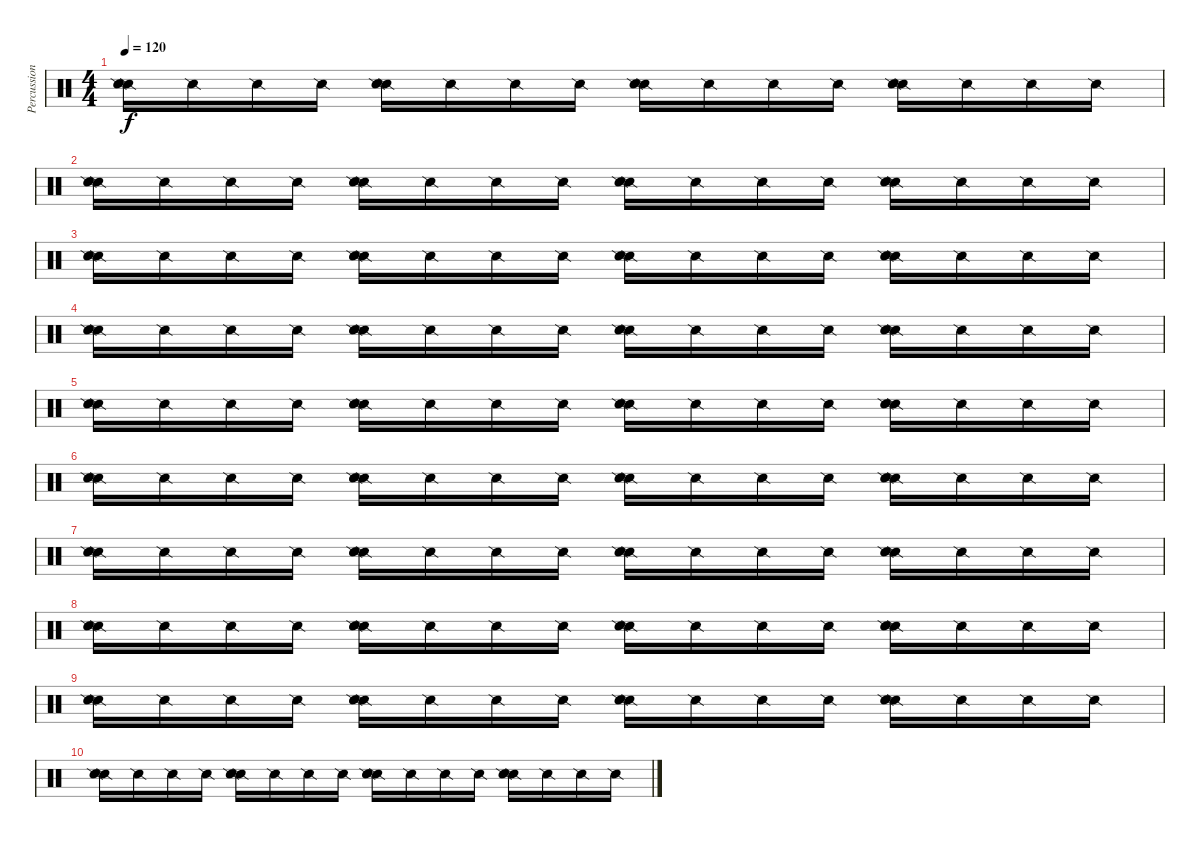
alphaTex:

\track ("Percussioni" "Percussion") {instrument percussion}
\staff {score}
\articulation defaults
\ts (4 4)
\tempo 120
\clef neutral
\ks c
("Snare (side stick) 2" "Snare (side stick) 2" "Metronome (bell)").16{dy f} "Snare (side stick) 2".16 "Snare (side stick) 2".16 "Snare (side stick) 2".16 ("Snare (side stick) 2" "Snare (side stick) 2" "Metronome (bell)").16 "Snare (side stick) 2".16 "Snare (side stick) 2".16 "Snare (side stick) 2".16 ("Snare (side stick) 2" "Snare (side stick) 2" "Metronome (bell)").16 "Snare (side stick) 2".16 "Snare (side stick) 2".16 "Snare (side stick) 2".16 ("Snare (side stick) 2" "Snare (side stick) 2" "Metronome (bell)").16 "Snare (side stick) 2".16 "Snare (side stick) 2".16 "Snare (side stick) 2".16 |
("Snare (side stick) 2" "Snare (side stick) 2" "Metronome (bell)").16 "Snare (side stick) 2".16 "Snare (side stick) 2".16 "Snare (side stick) 2".16 ("Snare (side stick) 2" "Snare (side stick) 2" "Metronome (bell)").16 "Snare (side stick) 2".16 "Snare (side stick) 2".16 "Snare (side stick) 2".16 ("Snare (side stick) 2" "Snare (side stick) 2" "Metronome (bell)").16 "Snare (side stick) 2".16 "Snare (side stick) 2".16 "Snare (side stick) 2".16 ("Snare (side stick) 2" "Snare (side stick) 2" "Metronome (bell)").16 "Snare (side stick) 2".16 "Snare (side stick) 2".16 "Snare (side stick) 2".16 |
("Snare (side stick) 2" "Snare (side stick) 2" "Metronome (bell)").16 "Snare (side stick) 2".16 "Snare (side stick) 2".16 "Snare (side stick) 2".16 ("Snare (side stick) 2" "Snare (side stick) 2" "Metronome (bell)").16 "Snare (side stick) 2".16 "Snare (side stick) 2".16 "Snare (side stick) 2".16 ("Snare (side stick) 2" "Snare (side stick) 2" "Metronome (bell)").16 "Snare (side stick) 2".16 "Snare (side stick) 2".16 "Snare (side stick) 2".16 ("Snare (side stick) 2" "Snare (side stick) 2" "Metronome (bell)").16 "Snare (side stick) 2".16 "Snare (side stick) 2".16 "Snare (side stick) 2".16 |
("Snare (side stick) 2" "Snare (side stick) 2" "Metronome (bell)").16 "Snare (side stick) 2".16 "Snare (side stick) 2".16 "Snare (side stick) 2".16 ("Snare (side stick) 2" "Snare (side stick) 2" "Metronome (bell)").16 "Snare (side stick) 2".16 "Snare (side stick) 2".16 "Snare (side stick) 2".16 ("Snare (side stick) 2" "Snare (side stick) 2" "Metronome (bell)").16 "Snare (side stick) 2".16 "Snare (side stick) 2".16 "Snare (side stick) 2".16 ("Snare (side stick) 2" "Snare (side stick) 2" "Metronome (bell)").16 "Snare (side stick) 2".16 "Snare (side stick) 2".16 "Snare (side stick) 2".16 |
("Snare (side stick) 2" "Snare (side stick) 2" "Metronome (bell)").16 "Snare (side stick) 2".16 "Snare (side stick) 2".16 "Snare (side stick) 2".16 ("Snare (side stick) 2" "Snare (side stick) 2" "Metronome (bell)").16 "Snare (side stick) 2".16 "Snare (side stick) 2".16 "Snare (side stick) 2".16 ("Snare (side stick) 2" "Snare (side stick) 2" "Metronome (bell)").16 "Snare (side stick) 2".16 "Snare (side stick) 2".16 "Snare (side stick) 2".16 ("Snare (side stick) 2" "Snare (side stick) 2" "Metronome (bell)").16 "Snare (side stick) 2".16 "Snare (side stick) 2".16 "Snare (side stick) 2".16 |
("Snare (side stick) 2" "Snare (side stick) 2" "Metronome (bell)").16 "Snare (side stick) 2".16 "Snare (side stick) 2".16 "Snare (side stick) 2".16 ("Snare (side stick) 2" "Snare (side stick) 2" "Metronome (bell)").16 "Snare (side stick) 2".16 "Snare (side stick) 2".16 "Snare (side stick) 2".16 ("Snare (side stick) 2" "Snare (side stick) 2" "Metronome (bell)").16 "Snare (side stick) 2".16 "Snare (side stick) 2".16 "Snare (side stick) 2".16 ("Snare (side stick) 2" "Snare (side stick) 2" "Metronome (bell)").16 "Snare (side stick) 2".16 "Snare (side stick) 2".16 "Snare (side stick) 2".16 |
("Snare (side stick) 2" "Snare (side stick) 2" "Metronome (bell)").16 "Snare (side stick) 2".16 "Snare (side stick) 2".16 "Snare (side stick) 2".16 ("Snare (side stick) 2" "Snare (side stick) 2" "Metronome (bell)").16 "Snare (side stick) 2".16 "Snare (side stick) 2".16 "Snare (side stick) 2".16 ("Snare (side stick) 2" "Snare (side stick) 2" "Metronome (bell)").16 "Snare (side stick) 2".16 "Snare (side stick) 2".16 "Snare (side stick) 2".16 ("Snare (side stick) 2" "Snare (side stick) 2" "Metronome (bell)").16 "Snare (side stick) 2".16 "Snare (side stick) 2".16 "Snare (side stick) 2".16 |
("Snare (side stick) 2" "Snare (side stick) 2" "Metronome (bell)").16 "Snare (side stick) 2".16 "Snare (side stick) 2".16 "Snare (side stick) 2".16 ("Snare (side stick) 2" "Snare (side stick) 2" "Metronome (bell)").16 "Snare (side stick) 2".16 "Snare (side stick) 2".16 "Snare (side stick) 2".16 ("Snare (side stick) 2" "Snare (side stick) 2" "Metronome (bell)").16 "Snare (side stick) 2".16 "Snare (side stick) 2".16 "Snare (side stick) 2".16 ("Snare (side stick) 2" "Snare (side stick) 2" "Metronome (bell)").16 "Snare (side stick) 2".16 "Snare (side stick) 2".16 "Snare (side stick) 2".16 |
("Snare (side stick) 2" "Snare (side stick) 2" "Metronome (bell)").16 "Snare (side stick) 2".16 "Snare (side stick) 2".16 "Snare (side stick) 2".16 ("Snare (side stick) 2" "Snare (side stick) 2" "Metronome (bell)").16 "Snare (side stick) 2".16 "Snare (side stick) 2".16 "Snare (side stick) 2".16 ("Snare (side stick) 2" "Snare (side stick) 2" "Metronome (bell)").16 "Snare (side stick) 2".16 "Snare (side stick) 2".16 "Snare (side stick) 2".16 ("Snare (side stick) 2" "Snare (side stick) 2" "Metronome (bell)").16 "Snare (side stick) 2".16 "Snare (side stick) 2".16 "Snare (side stick) 2".16 |
("Snare (side stick) 2" "Snare (side stick) 2" "Metronome (bell)").16 "Snare (side stick) 2".16 "Snare (side stick) 2".16 "Snare (side stick) 2".16 ("Snare (side stick) 2" "Snare (side stick) 2" "Metronome (bell)").16 "Snare (side stick) 2".16 "Snare (side stick) 2".16 "Snare (side stick) 2".16 ("Snare (side stick) 2" "Snare (side stick) 2" "Metronome (bell)").16 "Snare (side stick) 2".16 "Snare (side stick) 2".16 "Snare (side stick) 2".16 ("Snare (side stick) 2" "Snare (side stick) 2" "Metronome (bell)").16 "Snare (side stick) 2".16 "Snare (side stick) 2".16 "Snare (side stick) 2".16
